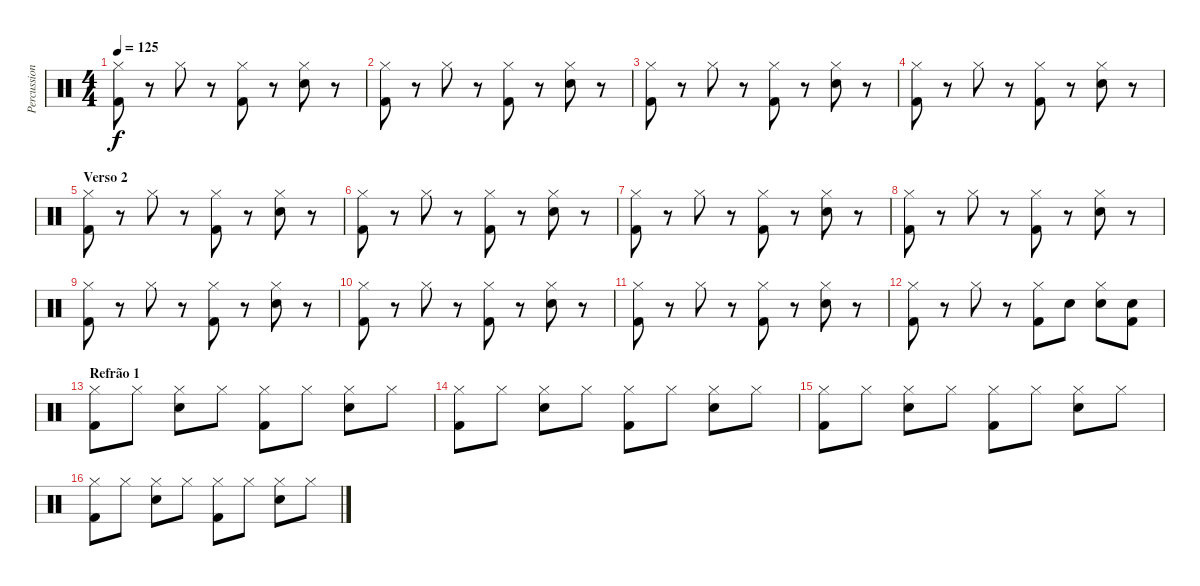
\track ("Percussion" "Percussion") {instrument percussion}
\staff {score}
\articulation defaults
\ts (4 4)
\tempo 125
\clef neutral
\ks c
("Kick (hit) 2" "Hi-Hat (closed)").8{dy f} r.8 "Hi-Hat (closed)".8 r.8 ("Kick (hit) 2" "Hi-Hat (closed)").8 r.8 ("Electric Snare (hit)" "Hi-Hat (closed)").8 r.8 |
("Kick (hit) 2" "Hi-Hat (closed)").8 r.8 "Hi-Hat (closed)".8 r.8 ("Kick (hit) 2" "Hi-Hat (closed)").8 r.8 ("Electric Snare (hit)" "Hi-Hat (closed)").8 r.8 |
("Kick (hit) 2" "Hi-Hat (closed)").8 r.8 "Hi-Hat (closed)".8 r.8 ("Kick (hit) 2" "Hi-Hat (closed)").8 r.8 ("Electric Snare (hit)" "Hi-Hat (closed)").8 r.8 |
("Kick (hit) 2" "Hi-Hat (closed)").8 r.8 "Hi-Hat (closed)".8 r.8 ("Kick (hit) 2" "Hi-Hat (closed)").8 r.8 ("Electric Snare (hit)" "Hi-Hat (closed)").8 r.8 |
\section ("" "Verso 2")
("Kick (hit) 2" "Hi-Hat (closed)").8 r.8 "Hi-Hat (closed)".8 r.8 ("Kick (hit) 2" "Hi-Hat (closed)").8 r.8 ("Electric Snare (hit)" "Hi-Hat (closed)").8 r.8 |
("Kick (hit) 2" "Hi-Hat (closed)").8 r.8 "Hi-Hat (closed)".8 r.8 ("Kick (hit) 2" "Hi-Hat (closed)").8 r.8 ("Electric Snare (hit)" "Hi-Hat (closed)").8 r.8 |
("Kick (hit) 2" "Hi-Hat (closed)").8 r.8 "Hi-Hat (closed)".8 r.8 ("Kick (hit) 2" "Hi-Hat (closed)").8 r.8 ("Electric Snare (hit)" "Hi-Hat (closed)").8 r.8 |
("Kick (hit) 2" "Hi-Hat (closed)").8 r.8 "Hi-Hat (closed)".8 r.8 ("Kick (hit) 2" "Hi-Hat (closed)").8 r.8 ("Electric Snare (hit)" "Hi-Hat (closed)").8 r.8 |
("Kick (hit) 2" "Hi-Hat (closed)").8 r.8 "Hi-Hat (closed)".8 r.8 ("Kick (hit) 2" "Hi-Hat (closed)").8 r.8 ("Electric Snare (hit)" "Hi-Hat (closed)").8 r.8 |
("Kick (hit) 2" "Hi-Hat (closed)").8 r.8 "Hi-Hat (closed)".8 r.8 ("Kick (hit) 2" "Hi-Hat (closed)").8 r.8 ("Electric Snare (hit)" "Hi-Hat (closed)").8 r.8 |
("Kick (hit) 2" "Hi-Hat (closed)").8 r.8 "Hi-Hat (closed)".8 r.8 ("Kick (hit) 2" "Hi-Hat (closed)").8 r.8 ("Electric Snare (hit)" "Hi-Hat (closed)").8 r.8 |
("Kick (hit) 2" "Hi-Hat (closed)").8 r.8 "Hi-Hat (closed)".8 r.8 ("Kick (hit) 2" "Hi-Hat (closed)").8 "Electric Snare (hit)".8 ("Electric Snare (hit)" "Hi-Hat (closed)").8 ("Electric Snare (hit)" "Kick (hit) 2").8 |
\section ("" "Refrão 1")
("Kick (hit) 2" "Hi-Hat (closed)").8 "Hi-Hat (closed)".8 ("Electric Snare (hit)" "Hi-Hat (closed)").8 "Hi-Hat (closed)".8 ("Kick (hit) 2" "Hi-Hat (closed)").8 "Hi-Hat (closed)".8 ("Electric Snare (hit)" "Hi-Hat (closed)").8 "Hi-Hat (closed)".8 |
("Kick (hit) 2" "Hi-Hat (closed)").8 "Hi-Hat (closed)".8 ("Electric Snare (hit)" "Hi-Hat (closed)").8 "Hi-Hat (closed)".8 ("Kick (hit) 2" "Hi-Hat (closed)").8 "Hi-Hat (closed)".8 ("Electric Snare (hit)" "Hi-Hat (closed)").8 "Hi-Hat (closed)".8 |
("Kick (hit) 2" "Hi-Hat (closed)").8 "Hi-Hat (closed)".8 ("Electric Snare (hit)" "Hi-Hat (closed)").8 "Hi-Hat (closed)".8 ("Kick (hit) 2" "Hi-Hat (closed)").8 "Hi-Hat (closed)".8 ("Electric Snare (hit)" "Hi-Hat (closed)").8 "Hi-Hat (closed)".8 |
("Kick (hit) 2" "Hi-Hat (closed)").8 "Hi-Hat (closed)".8 ("Electric Snare (hit)" "Hi-Hat (closed)").8 "Hi-Hat (closed)".8 ("Kick (hit) 2" "Hi-Hat (closed)").8 "Hi-Hat (closed)".8 ("Electric Snare (hit)" "Hi-Hat (closed)").8 "Hi-Hat (closed)".8
